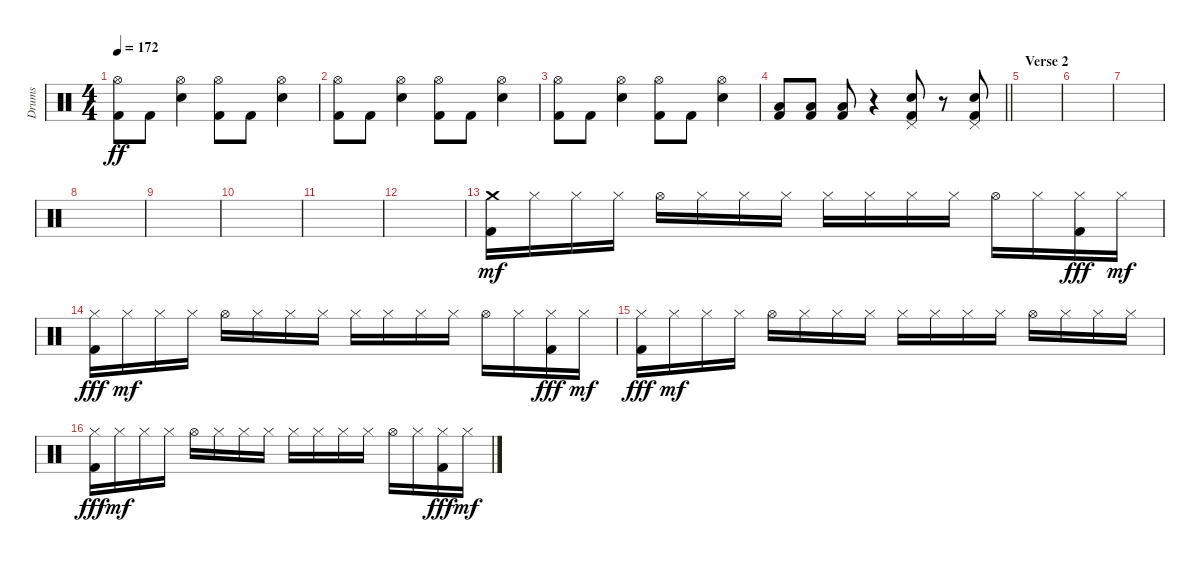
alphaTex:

\track ("Drums" "Drums") {instrument percussion}
\staff {score}
\articulation defaults
\ts (4 4)
\tempo 172
\clef neutral
\ks c
("Hi-Hat (open)" "Kick (hit) 2").8{dy ff} "Kick (hit) 2".8 ("Hi-Hat (open)" "Snare (hit) 2").4 ("Hi-Hat (open)" "Kick (hit) 2").8 "Kick (hit) 2".8 ("Hi-Hat (open)" "Snare (hit) 2").4 |
("Hi-Hat (open)" "Kick (hit) 2").8 "Kick (hit) 2".8 ("Hi-Hat (open)" "Snare (hit) 2").4 ("Hi-Hat (open)" "Kick (hit) 2").8 "Kick (hit) 2".8 ("Hi-Hat (open)" "Snare (hit) 2").4 |
("Hi-Hat (open)" "Kick (hit) 2").8 "Kick (hit) 2".8 ("Hi-Hat (open)" "Snare (hit) 2").4 ("Hi-Hat (open)" "Kick (hit) 2").8 "Kick (hit) 2".8 ("Hi-Hat (open)" "Snare (hit) 2").4 |
\barLineRight lightlight
("Low Floor Tom (hit)" "Kick (hit) 2").8 ("Low Floor Tom (hit)" "Kick (hit) 2").8 ("Low Floor Tom (hit)" "Kick (hit) 2").8 r.4 ("Pedal Hi-Hat (hit)" "Snare (hit) 2" "Kick (hit) 2").8 r.8 ("Pedal Hi-Hat (hit)" "Snare (hit) 2" "Kick (hit) 2").8 |
\section ("" "Verse 2")
|
|
|
|
|
|
|
|
("Crash medium (hit)" "Kick (hit) 2").16{dy mf} "Hi-Hat (closed)".16 "Hi-Hat (closed)".16 "Hi-Hat (closed)".16 "Hi-Hat (open)".16 "Hi-Hat (closed)".16 "Hi-Hat (closed)".16 "Hi-Hat (closed)".16 "Hi-Hat (closed)".16 "Hi-Hat (closed)".16 "Hi-Hat (closed)".16 "Hi-Hat (closed)".16 "Hi-Hat (open)".16 "Hi-Hat (closed)".16 ("Hi-Hat (closed)" "Kick (hit) 2").16{dy fff} "Hi-Hat (closed)".16{dy mf} |
("Hi-Hat (closed)" "Kick (hit) 2").16{dy fff} "Hi-Hat (closed)".16{dy mf} "Hi-Hat (closed)".16 "Hi-Hat (closed)".16 "Hi-Hat (open)".16 "Hi-Hat (closed)".16 "Hi-Hat (closed)".16 "Hi-Hat (closed)".16 "Hi-Hat (closed)".16 "Hi-Hat (closed)".16 "Hi-Hat (closed)".16 "Hi-Hat (closed)".16 "Hi-Hat (open)".16 "Hi-Hat (closed)".16 ("Hi-Hat (closed)" "Kick (hit) 2").16{dy fff} "Hi-Hat (closed)".16{dy mf} |
("Hi-Hat (closed)" "Kick (hit) 2").16{dy fff} "Hi-Hat (closed)".16{dy mf} "Hi-Hat (closed)".16 "Hi-Hat (closed)".16 "Hi-Hat (open)".16 "Hi-Hat (closed)".16 "Hi-Hat (closed)".16 "Hi-Hat (closed)".16 "Hi-Hat (closed)".16 "Hi-Hat (closed)".16 "Hi-Hat (closed)".16 "Hi-Hat (closed)".16 "Hi-Hat (open)".16 "Hi-Hat (closed)".16 "Hi-Hat (closed)".16 "Hi-Hat (closed)".16 |
("Hi-Hat (closed)" "Kick (hit) 2").16{dy fff} "Hi-Hat (closed)".16{dy mf} "Hi-Hat (closed)".16 "Hi-Hat (closed)".16 "Hi-Hat (open)".16 "Hi-Hat (closed)".16 "Hi-Hat (closed)".16 "Hi-Hat (closed)".16 "Hi-Hat (closed)".16 "Hi-Hat (closed)".16 "Hi-Hat (closed)".16 "Hi-Hat (closed)".16 "Hi-Hat (open)".16 "Hi-Hat (closed)".16 ("Hi-Hat (closed)" "Kick (hit) 2").16{dy fff} "Hi-Hat (closed)".16{dy mf}
